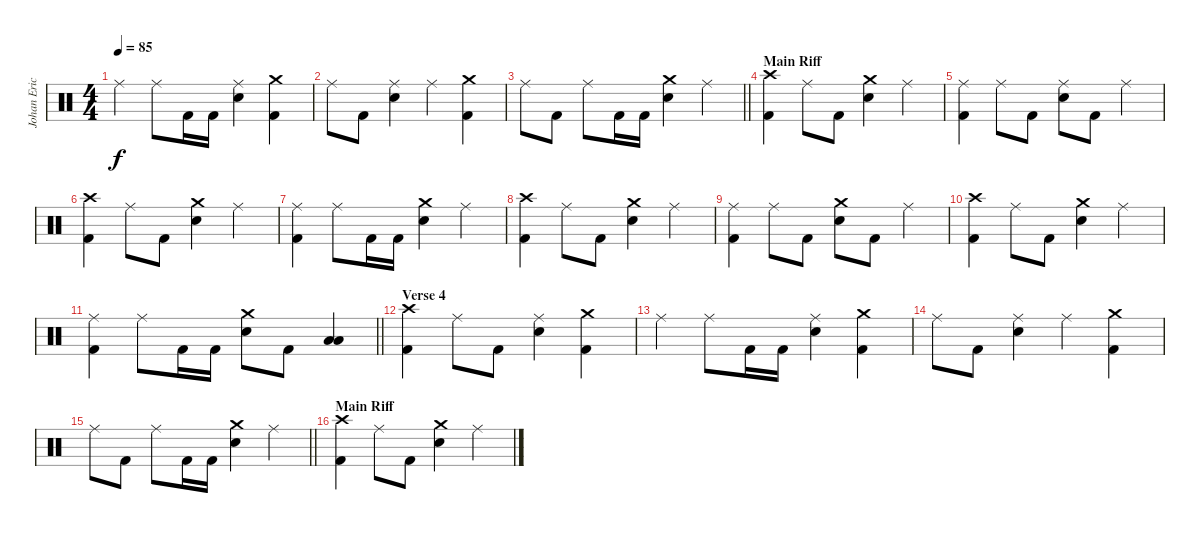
\track ("Johan Ericson" "Johan Eric") {instrument percussion}
\staff {score}
\articulation defaults
\ts (4 4)
\tempo 85
\clef neutral
\ks c "Ride (middle)".4{dy f} "Ride (middle)".8 "Kick (hit) 2".16 "Kick (hit) 2".16
("Ride (middle)" "Snare (hit) 2").4 ("Crash medium (hit)" "Kick (hit) 2").4 |
"Ride (middle)".8 "Kick (hit) 2".8 ("Ride (middle)" "Snare (hit) 2").4 "Ride (middle)".4 ("Crash medium (hit)" "Kick (hit) 2").4 |
\barLineRight lightlight "Ride (middle)".8 "Kick (hit) 2".8 "Ride (middle)".8 "Kick (hit) 2".16 "Kick (hit) 2".16
("Crash medium (hit)" "Snare (hit) 2").4 "Ride (middle)".4 |
\section ("" "Main Riff")
("Crash high (hit)" "Kick (hit) 2").4 "Ride (middle)".8 "Kick (hit) 2".8 ("Crash medium (hit)" "Snare (hit) 2").4 "Ride (middle)".4 |
("Ride (middle)" "Kick (hit) 2").4 "Ride (middle)".8 "Kick (hit) 2".8 ("Ride (middle)" "Snare (hit) 2").8 "Kick (hit) 2".8 "Ride (middle)".4 |
("Crash high (hit)" "Kick (hit) 2").4 "Ride (middle)".8 "Kick (hit) 2".8 ("Crash medium (hit)" "Snare (hit) 2").4 "Ride (middle)".4 |
("Ride (middle)" "Kick (hit) 2").4 "Ride (middle)".8 "Kick (hit) 2".16 "Kick (hit) 2".16 ("Crash medium (hit)" "Snare (hit) 2").4 "Ride (middle)".4 |
("Crash high (hit)" "Kick (hit) 2").4 "Ride (middle)".8 "Kick (hit) 2".8 ("Crash medium (hit)" "Snare (hit) 2").4 "Ride (middle)".4 |
("Ride (middle)" "Kick (hit) 2").4 "Ride (middle)".8 "Kick (hit) 2".8 ("Crash medium (hit)" "Snare (hit) 2").8 "Kick (hit) 2".8 "Ride (middle)".4 |
("Crash high (hit)" "Kick (hit) 2").4 "Ride (middle)".8 "Kick (hit) 2".8 ("Crash medium (hit)" "Snare (hit) 2").4 "Ride (middle)".4 |
\barLineRight lightlight
("Ride (middle)" "Kick (hit) 2").4 "Ride (middle)".8 "Kick (hit) 2".16 "Kick (hit) 2".16 ("Crash medium (hit)" "Snare (hit) 2").8 "Kick (hit) 2".8 ("Low Floor Tom (hit)" "Low Tom (hit)").4 |
\section ("" "Verse 4")
("Crash high (hit)" "Kick (hit) 2").4 "Ride (middle)".8 "Kick (hit) 2".8 ("Ride (middle)" "Snare (hit) 2").4 ("Crash medium (hit)" "Kick (hit) 2").4 |
"Ride (middle)".4 "Ride (middle)".8 "Kick (hit) 2".16 "Kick (hit) 2".16 ("Ride (middle)" "Snare (hit) 2").4 ("Crash medium (hit)" "Kick (hit) 2").4 |
"Ride (middle)".8 "Kick (hit) 2".8 ("Ride (middle)" "Snare (hit) 2").4 "Ride (middle)".4 ("Crash medium (hit)" "Kick (hit) 2").4 |
\barLineRight lightlight "Ride (middle)".8 "Kick (hit) 2".8 "Ride (middle)".8 "Kick (hit) 2".16 "Kick (hit) 2".16
("Crash medium (hit)" "Snare (hit) 2").4 "Ride (middle)".4 |
\section ("" "Main Riff")
("Crash high (hit)" "Kick (hit) 2").4 "Ride (middle)".8 "Kick (hit) 2".8 ("Crash medium (hit)" "Snare (hit) 2").4 "Ride (middle)".4
